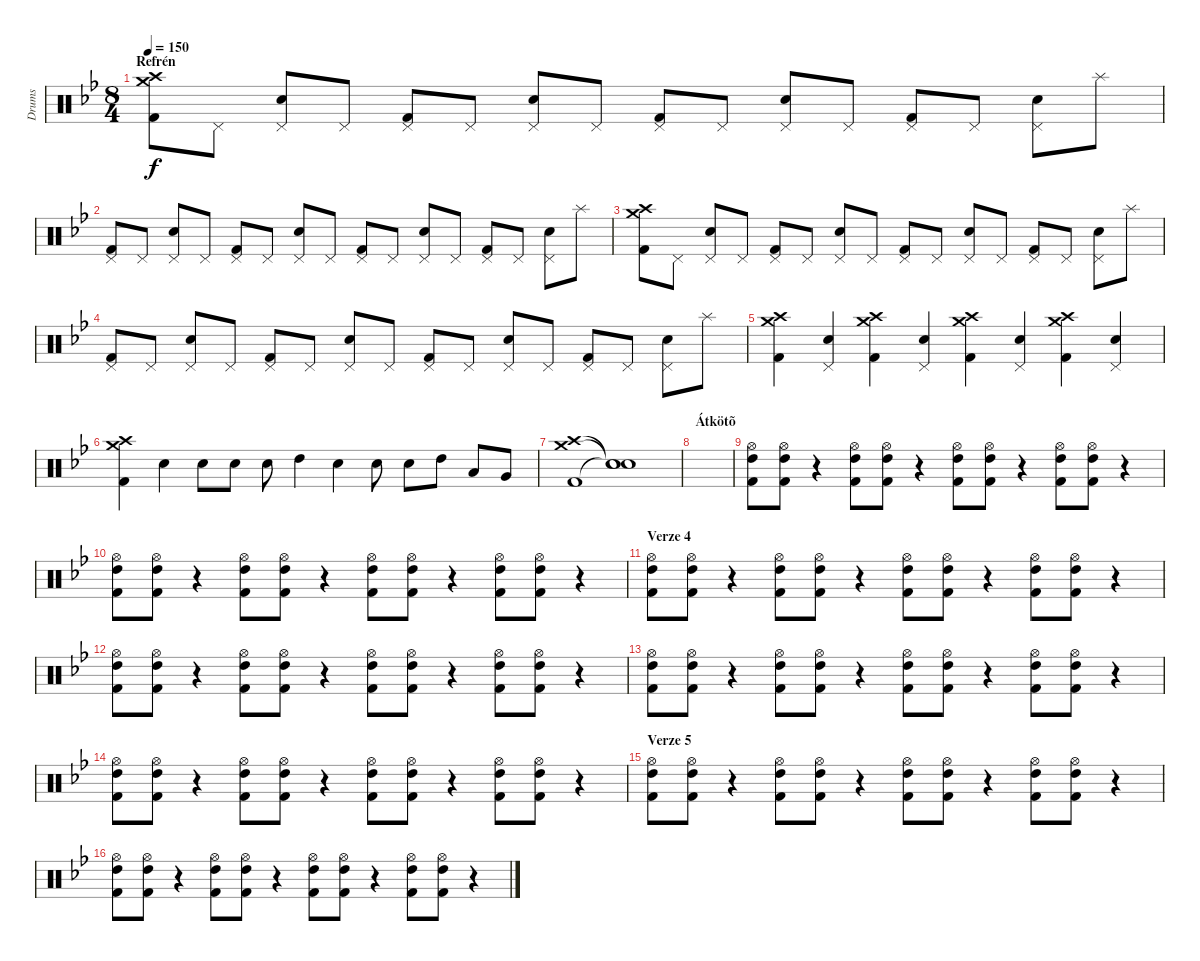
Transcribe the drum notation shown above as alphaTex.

\track ("Drums" "Drums") {instrument percussion}
\staff {score}
\articulation defaults
\ts (8 4)
\section ("" "Refrén")
\tempo 150
\clef neutral
\ks gminor
("Crash medium (hit)" "Crash high (hit)" "Kick (hit) 2").8{dy f} "Pedal Hi-Hat (hit)".8 ("Pedal Hi-Hat (hit)" "Snare (hit) 2").8 "Pedal Hi-Hat (hit)".8 ("Pedal Hi-Hat (hit)" "Kick (hit) 2").8 "Pedal Hi-Hat (hit)".8 ("Pedal Hi-Hat (hit)" "Snare (hit) 2").8 "Pedal Hi-Hat (hit)".8 ("Pedal Hi-Hat (hit)" "Kick (hit) 2").8 "Pedal Hi-Hat (hit)".8 ("Pedal Hi-Hat (hit)" "Snare (hit) 2").8 "Pedal Hi-Hat (hit)".8 ("Pedal Hi-Hat (hit)" "Kick (hit) 2").8 "Pedal Hi-Hat (hit)".8 ("Pedal Hi-Hat (hit)" "Snare (hit) 2").8 "Splash (hit)".8 |
("Pedal Hi-Hat (hit)" "Kick (hit) 2").8 "Pedal Hi-Hat (hit)".8 ("Pedal Hi-Hat (hit)" "Snare (hit) 2").8 "Pedal Hi-Hat (hit)".8 ("Pedal Hi-Hat (hit)" "Kick (hit) 2").8 "Pedal Hi-Hat (hit)".8 ("Pedal Hi-Hat (hit)" "Snare (hit) 2").8 "Pedal Hi-Hat (hit)".8 ("Pedal Hi-Hat (hit)" "Kick (hit) 2").8 "Pedal Hi-Hat (hit)".8 ("Pedal Hi-Hat (hit)" "Snare (hit) 2").8 "Pedal Hi-Hat (hit)".8 ("Pedal Hi-Hat (hit)" "Kick (hit) 2").8 "Pedal Hi-Hat (hit)".8 ("Pedal Hi-Hat (hit)" "Snare (hit) 2").8 "Splash (hit)".8 |
("Crash medium (hit)" "Crash high (hit)" "Kick (hit) 2").8 "Pedal Hi-Hat (hit)".8 ("Pedal Hi-Hat (hit)" "Snare (hit) 2").8 "Pedal Hi-Hat (hit)".8 ("Pedal Hi-Hat (hit)" "Kick (hit) 2").8 "Pedal Hi-Hat (hit)".8 ("Pedal Hi-Hat (hit)" "Snare (hit) 2").8 "Pedal Hi-Hat (hit)".8 ("Pedal Hi-Hat (hit)" "Kick (hit) 2").8 "Pedal Hi-Hat (hit)".8 ("Pedal Hi-Hat (hit)" "Snare (hit) 2").8 "Pedal Hi-Hat (hit)".8 ("Pedal Hi-Hat (hit)" "Kick (hit) 2").8 "Pedal Hi-Hat (hit)".8 ("Pedal Hi-Hat (hit)" "Snare (hit) 2").8 "Splash (hit)".8 |
("Pedal Hi-Hat (hit)" "Kick (hit) 2").8 "Pedal Hi-Hat (hit)".8 ("Pedal Hi-Hat (hit)" "Snare (hit) 2").8 "Pedal Hi-Hat (hit)".8 ("Pedal Hi-Hat (hit)" "Kick (hit) 2").8 "Pedal Hi-Hat (hit)".8 ("Pedal Hi-Hat (hit)" "Snare (hit) 2").8 "Pedal Hi-Hat (hit)".8 ("Pedal Hi-Hat (hit)" "Kick (hit) 2").8 "Pedal Hi-Hat (hit)".8 ("Pedal Hi-Hat (hit)" "Snare (hit) 2").8 "Pedal Hi-Hat (hit)".8 ("Pedal Hi-Hat (hit)" "Kick (hit) 2").8 "Pedal Hi-Hat (hit)".8 ("Pedal Hi-Hat (hit)" "Snare (hit) 2").8 "Splash (hit)".8 |
("Crash medium (hit)" "Crash high (hit)" "Kick (hit) 2").4 ("Pedal Hi-Hat (hit)" "Snare (hit) 2").4 ("Crash medium (hit)" "Crash high (hit)" "Kick (hit) 2").4 ("Pedal Hi-Hat (hit)" "Snare (hit) 2").4 ("Crash medium (hit)" "Crash high (hit)" "Kick (hit) 2").4 ("Pedal Hi-Hat (hit)" "Snare (hit) 2").4 ("Crash medium (hit)" "Crash high (hit)" "Kick (hit) 2").4 ("Pedal Hi-Hat (hit)" "Snare (hit) 2").4 |
("Crash medium (hit)" "Crash high (hit)" "Kick (hit) 2").4 "Snare (hit) 2".4 "Snare (hit) 2".8 "Snare (hit) 2".8 "Snare (hit) 2".8 "High Tom (hit)".4 "Snare (hit) 2".4 "Snare (hit) 2".8 "Snare (hit) 2".8 "High Tom (hit)".8 "Low Tom (hit)".8 "Very Low Tom (hit)".8 |
("Crash medium (hit)" "Crash high (hit)" "Kick (hit) 2").1 ("Snare (hit)"{t} "Snare (hit)"{t} "Snare (hit)"{t}).1 |
\section ("" "Átkötõ")
|
("High Tom (hit)" "Hi-Hat (open)" "Kick (hit) 2").8 ("High Tom (hit)" "Hi-Hat (open)" "Kick (hit) 2").8 r.4 ("High Tom (hit)" "Hi-Hat (open)" "Kick (hit) 2").8 ("High Tom (hit)" "Hi-Hat (open)" "Kick (hit) 2").8 r.4 ("High Tom (hit)" "Hi-Hat (open)" "Kick (hit) 2").8 ("High Tom (hit)" "Hi-Hat (open)" "Kick (hit) 2").8 r.4 ("High Tom (hit)" "Hi-Hat (open)" "Kick (hit) 2").8 ("High Tom (hit)" "Hi-Hat (open)" "Kick (hit) 2").8 r.4 |
("High Tom (hit)" "Hi-Hat (open)" "Kick (hit) 2").8 ("High Tom (hit)" "Hi-Hat (open)" "Kick (hit) 2").8 r.4 ("High Tom (hit)" "Hi-Hat (open)" "Kick (hit) 2").8 ("High Tom (hit)" "Hi-Hat (open)" "Kick (hit) 2").8 r.4 ("High Tom (hit)" "Hi-Hat (open)" "Kick (hit) 2").8 ("High Tom (hit)" "Hi-Hat (open)" "Kick (hit) 2").8 r.4 ("High Tom (hit)" "Hi-Hat (open)" "Kick (hit) 2").8 ("High Tom (hit)" "Hi-Hat (open)" "Kick (hit) 2").8 r.4 |
\section ("" "Verze 4")
("High Tom (hit)" "Hi-Hat (open)" "Kick (hit) 2").8 ("High Tom (hit)" "Hi-Hat (open)" "Kick (hit) 2").8 r.4 ("High Tom (hit)" "Hi-Hat (open)" "Kick (hit) 2").8 ("High Tom (hit)" "Hi-Hat (open)" "Kick (hit) 2").8 r.4 ("High Tom (hit)" "Hi-Hat (open)" "Kick (hit) 2").8 ("High Tom (hit)" "Hi-Hat (open)" "Kick (hit) 2").8 r.4 ("High Tom (hit)" "Hi-Hat (open)" "Kick (hit) 2").8 ("High Tom (hit)" "Hi-Hat (open)" "Kick (hit) 2").8 r.4 |
("High Tom (hit)" "Hi-Hat (open)" "Kick (hit) 2").8 ("High Tom (hit)" "Hi-Hat (open)" "Kick (hit) 2").8 r.4 ("High Tom (hit)" "Hi-Hat (open)" "Kick (hit) 2").8 ("High Tom (hit)" "Hi-Hat (open)" "Kick (hit) 2").8 r.4 ("High Tom (hit)" "Hi-Hat (open)" "Kick (hit) 2").8 ("High Tom (hit)" "Hi-Hat (open)" "Kick (hit) 2").8 r.4 ("High Tom (hit)" "Hi-Hat (open)" "Kick (hit) 2").8 ("High Tom (hit)" "Hi-Hat (open)" "Kick (hit) 2").8 r.4 |
("High Tom (hit)" "Hi-Hat (open)" "Kick (hit) 2").8 ("High Tom (hit)" "Hi-Hat (open)" "Kick (hit) 2").8 r.4 ("High Tom (hit)" "Hi-Hat (open)" "Kick (hit) 2").8 ("High Tom (hit)" "Hi-Hat (open)" "Kick (hit) 2").8 r.4 ("High Tom (hit)" "Hi-Hat (open)" "Kick (hit) 2").8 ("High Tom (hit)" "Hi-Hat (open)" "Kick (hit) 2").8 r.4 ("High Tom (hit)" "Hi-Hat (open)" "Kick (hit) 2").8 ("High Tom (hit)" "Hi-Hat (open)" "Kick (hit) 2").8 r.4 |
("High Tom (hit)" "Hi-Hat (open)" "Kick (hit) 2").8 ("High Tom (hit)" "Hi-Hat (open)" "Kick (hit) 2").8 r.4 ("High Tom (hit)" "Hi-Hat (open)" "Kick (hit) 2").8 ("High Tom (hit)" "Hi-Hat (open)" "Kick (hit) 2").8 r.4 ("High Tom (hit)" "Hi-Hat (open)" "Kick (hit) 2").8 ("High Tom (hit)" "Hi-Hat (open)" "Kick (hit) 2").8 r.4 ("High Tom (hit)" "Hi-Hat (open)" "Kick (hit) 2").8 ("High Tom (hit)" "Hi-Hat (open)" "Kick (hit) 2").8 r.4 |
\section ("" "Verze 5")
("High Tom (hit)" "Hi-Hat (open)" "Kick (hit) 2").8 ("High Tom (hit)" "Hi-Hat (open)" "Kick (hit) 2").8 r.4 ("High Tom (hit)" "Hi-Hat (open)" "Kick (hit) 2").8 ("High Tom (hit)" "Hi-Hat (open)" "Kick (hit) 2").8 r.4 ("High Tom (hit)" "Hi-Hat (open)" "Kick (hit) 2").8 ("High Tom (hit)" "Hi-Hat (open)" "Kick (hit) 2").8 r.4 ("High Tom (hit)" "Hi-Hat (open)" "Kick (hit) 2").8 ("High Tom (hit)" "Hi-Hat (open)" "Kick (hit) 2").8 r.4 |
("High Tom (hit)" "Hi-Hat (open)" "Kick (hit) 2").8 ("High Tom (hit)" "Hi-Hat (open)" "Kick (hit) 2").8 r.4 ("High Tom (hit)" "Hi-Hat (open)" "Kick (hit) 2").8 ("High Tom (hit)" "Hi-Hat (open)" "Kick (hit) 2").8 r.4 ("High Tom (hit)" "Hi-Hat (open)" "Kick (hit) 2").8 ("High Tom (hit)" "Hi-Hat (open)" "Kick (hit) 2").8 r.4 ("High Tom (hit)" "Hi-Hat (open)" "Kick (hit) 2").8 ("High Tom (hit)" "Hi-Hat (open)" "Kick (hit) 2").8 r.4
